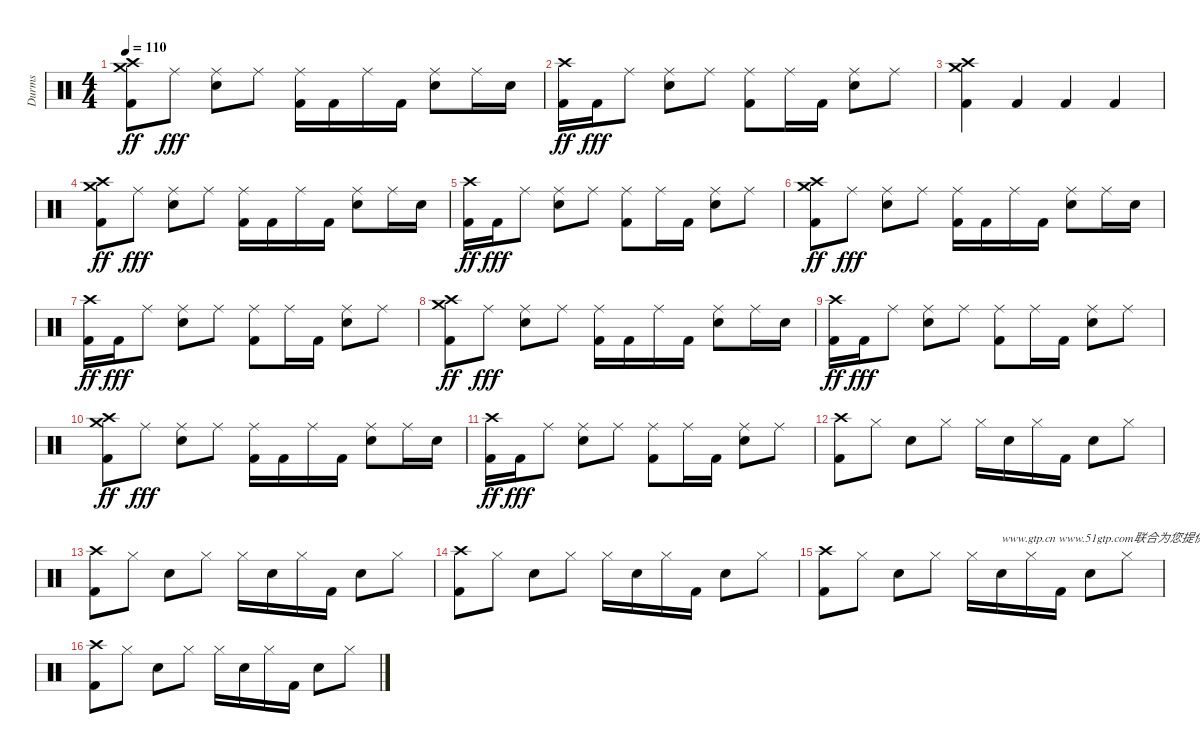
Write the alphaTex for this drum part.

\track ("Durms" "Durms") {instrument percussion}
\staff {score}
\articulation defaults
\ts (4 4)
\tempo 110
\clef neutral
\ks c
("Crash medium (hit)" "Crash high (hit)" "Kick (hit) 2").8{dy ff} "Ride (middle)".8{dy fff} ("Ride (middle)" "Electric Snare (hit)").8 "Ride (middle)".8 ("Ride (middle)" "Kick (hit) 2").16 "Kick (hit) 2".16 "Ride (middle)".16 "Kick (hit) 2".16 ("Ride (middle)" "Electric Snare (hit)").8 "Ride (middle)".16 "Electric Snare (hit)".16 |
("Crash high (hit)" "Kick (hit) 2").16{dy ff} "Kick (hit) 2".16{dy fff} "Ride (middle)".8 ("Ride (middle)" "Electric Snare (hit)").8 "Ride (middle)".8 ("Ride (middle)" "Kick (hit) 2").8 "Ride (middle)".16 "Kick (hit) 2".16 ("Ride (middle)" "Electric Snare (hit)").8 "Ride (middle)".8 |
("Crash high (hit)" "Crash medium (hit)" "Kick (hit) 2").4 "Kick (hit) 2".4 "Kick (hit) 2".4 "Kick (hit) 2".4 |
("Crash medium (hit)" "Crash high (hit)" "Kick (hit) 2").8{dy ff} "Ride (middle)".8{dy fff} ("Ride (middle)" "Electric Snare (hit)").8 "Ride (middle)".8 ("Ride (middle)" "Kick (hit) 2").16 "Kick (hit) 2".16 "Ride (middle)".16 "Kick (hit) 2".16 ("Ride (middle)" "Electric Snare (hit)").8 "Ride (middle)".16 "Electric Snare (hit)".16 |
("Crash high (hit)" "Kick (hit) 2").16{dy ff} "Kick (hit) 2".16{dy fff} "Ride (middle)".8 ("Ride (middle)" "Electric Snare (hit)").8 "Ride (middle)".8 ("Ride (middle)" "Kick (hit) 2").8 "Ride (middle)".16 "Kick (hit) 2".16 ("Ride (middle)" "Electric Snare (hit)").8 "Ride (middle)".8 |
("Crash medium (hit)" "Crash high (hit)" "Kick (hit) 2").8{dy ff} "Ride (middle)".8{dy fff} ("Ride (middle)" "Electric Snare (hit)").8 "Ride (middle)".8 ("Ride (middle)" "Kick (hit) 2").16 "Kick (hit) 2".16 "Ride (middle)".16 "Kick (hit) 2".16 ("Ride (middle)" "Electric Snare (hit)").8 "Ride (middle)".16 "Electric Snare (hit)".16 |
("Crash high (hit)" "Kick (hit) 2").16{dy ff} "Kick (hit) 2".16{dy fff} "Ride (middle)".8 ("Ride (middle)" "Electric Snare (hit)").8 "Ride (middle)".8 ("Ride (middle)" "Kick (hit) 2").8 "Ride (middle)".16 "Kick (hit) 2".16 ("Ride (middle)" "Electric Snare (hit)").8 "Ride (middle)".8 |
("Crash medium (hit)" "Crash high (hit)" "Kick (hit) 2").8{dy ff} "Ride (middle)".8{dy fff} ("Ride (middle)" "Electric Snare (hit)").8 "Ride (middle)".8 ("Ride (middle)" "Kick (hit) 2").16 "Kick (hit) 2".16 "Ride (middle)".16 "Kick (hit) 2".16 ("Ride (middle)" "Electric Snare (hit)").8 "Ride (middle)".16 "Electric Snare (hit)".16 |
("Crash high (hit)" "Kick (hit) 2").16{dy ff} "Kick (hit) 2".16{dy fff} "Ride (middle)".8 ("Ride (middle)" "Electric Snare (hit)").8 "Ride (middle)".8 ("Ride (middle)" "Kick (hit) 2").8 "Ride (middle)".16 "Kick (hit) 2".16 ("Ride (middle)" "Electric Snare (hit)").8 "Ride (middle)".8 |
("Crash medium (hit)" "Crash high (hit)" "Kick (hit) 2").8{dy ff} "Ride (middle)".8{dy fff} ("Ride (middle)" "Electric Snare (hit)").8 "Ride (middle)".8 ("Ride (middle)" "Kick (hit) 2").16 "Kick (hit) 2".16 "Ride (middle)".16 "Kick (hit) 2".16 ("Ride (middle)" "Electric Snare (hit)").8 "Ride (middle)".16 "Electric Snare (hit)".16 |
("Crash high (hit)" "Kick (hit) 2").16{dy ff} "Kick (hit) 2".16{dy fff} "Ride (middle)".8 ("Ride (middle)" "Electric Snare (hit)").8 "Ride (middle)".8 ("Ride (middle)" "Kick (hit) 2").8 "Ride (middle)".16 "Kick (hit) 2".16 ("Ride (middle)" "Electric Snare (hit)").8 "Ride (middle)".8 |
("Crash high (hit)" "Kick (hit) 2").8 "Hi-Hat (closed)".8 "Electric Snare (hit)".8 "Hi-Hat (closed)".8 "Hi-Hat (closed)".16 "Electric Snare (hit)".16 "Hi-Hat (closed)".16 "Kick (hit) 2".16 "Electric Snare (hit)".8 "Hi-Hat (closed)".8 |
("Crash high (hit)" "Kick (hit) 2").8 "Hi-Hat (closed)".8 "Electric Snare (hit)".8 "Hi-Hat (closed)".8 "Hi-Hat (closed)".16 "Electric Snare (hit)".16 "Hi-Hat (closed)".16 "Kick (hit) 2".16 "Electric Snare (hit)".8 "Hi-Hat (closed)".8 |
("Crash high (hit)" "Kick (hit) 2").8 "Hi-Hat (closed)".8 "Electric Snare (hit)".8 "Hi-Hat (closed)".8 "Hi-Hat (closed)".16 "Electric Snare (hit)".16 "Hi-Hat (closed)".16 "Kick (hit) 2".16 "Electric Snare (hit)".8 "Hi-Hat (closed)".8 |
("Crash high (hit)" "Kick (hit) 2").8 "Hi-Hat (closed)".8 "Electric Snare (hit)".8 "Hi-Hat (closed)".8 "Hi-Hat (closed)".16 "Electric Snare (hit)".16{txt "www.gtp.cn www.51gtp.com联合为您提供优秀的GTP!"} "Hi-Hat (closed)".16 "Kick (hit) 2".16 "Electric Snare (hit)".8 "Hi-Hat (closed)".8 |
("Crash high (hit)" "Kick (hit) 2").8 "Hi-Hat (closed)".8 "Electric Snare (hit)".8 "Hi-Hat (closed)".8 "Hi-Hat (closed)".16 "Electric Snare (hit)".16 "Hi-Hat (closed)".16 "Kick (hit) 2".16 "Electric Snare (hit)".8 "Hi-Hat (closed)".8
